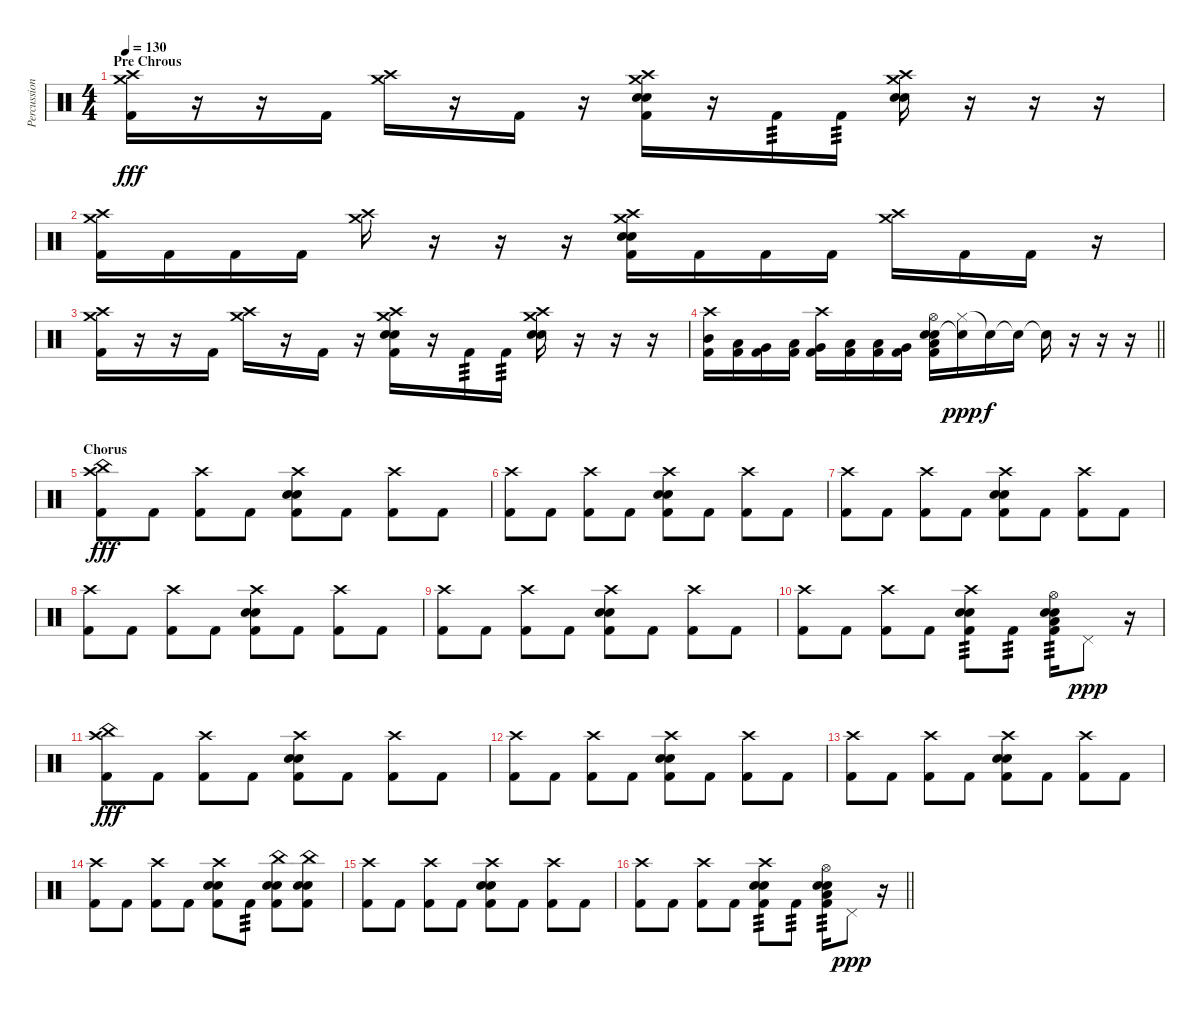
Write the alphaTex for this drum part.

\track ("Percussion" "Percussion") {instrument percussion}
\staff {score}
\articulation defaults
\ts (4 4)
\section ("" "Pre Chrous")
\tempo 130
\clef neutral
\ks c
("Crash medium (hit)" "Crash high (hit)" "Kick (hit) 2").16{dy fff} r.16 r.16 "Kick (hit) 2".16 ("Crash medium (hit)" "Crash high (hit)").16 r.16 "Kick (hit) 2".16 r.16 ("Crash medium (hit)" "Crash high (hit)" "Snare (hit) 2" "Electric Snare (hit)" "Kick (hit) 2").16 r.16 "Kick (hit) 2".16{tp 3} "Kick (hit) 2".16{tp 3} ("Crash medium (hit)" "Crash high (hit)" "Snare (hit) 2" "Electric Snare (hit)").16 r.16 r.16 r.16 |
("Crash high (hit)" "Crash medium (hit)" "Kick (hit) 2").16 "Kick (hit) 2".16 "Kick (hit) 2".16 "Kick (hit) 2".16 ("Crash high (hit)" "Crash medium (hit)").16 r.16 r.16 r.16 ("Crash high (hit)" "Crash medium (hit)" "Electric Snare (hit)" "Snare (hit) 2" "Kick (hit) 2").16 "Kick (hit) 2".16 "Kick (hit) 2".16 "Kick (hit) 2".16 ("Crash high (hit)" "Crash medium (hit)").16 "Kick (hit) 2".16 "Kick (hit) 2".16 r.16 |
("Crash medium (hit)" "Crash high (hit)" "Kick (hit) 2").16 r.16 r.16 "Kick (hit) 2".16 ("Crash medium (hit)" "Crash high (hit)").16 r.16 "Kick (hit) 2".16 r.16 ("Crash medium (hit)" "Crash high (hit)" "Snare (hit) 2" "Electric Snare (hit)" "Kick (hit) 2").16 r.16 "Kick (hit) 2".16{tp 3} "Kick (hit) 2".16{tp 3} ("Crash medium (hit)" "Crash high (hit)" "Snare (hit) 2" "Electric Snare (hit)").16 r.16 r.16 r.16 |
\barLineRight lightlight
("Crash high (hit)" "Mid Tom (hit)" "Kick (hit) 2").16 ("Low Tom (hit)" "Kick (hit) 2").16 ("Very Low Tom (hit)" "Kick (hit) 2").16 ("Low Tom (hit)" "Kick (hit) 2").16 ("Crash high (hit)" "Very Low Tom (hit)" "Kick (hit) 2").16 ("Low Floor Tom (hit)" "Kick (hit) 2").16 ("Low Tom (hit)" "Kick (hit) 2").16 ("Very Low Tom (hit)" "Kick (hit) 2").16 ("Hi-Hat (open)" "Electric Snare (hit)" "Snare (hit) 2" "Low Floor Tom (hit)" "Kick (hit) 2").16 ("Hi-Hat (closed)" "Snare (hit)"{t}).16{dy ppp} "Snare (hit)"{t}.16{dy f} "Snare (hit)"{t}.16 "Snare (hit)"{t}.16 r.16 r.16 r.16 |
\section ("" "Chorus")
("China (hit)" "Crash high (hit)" "Kick (hit) 2").8{dy fff} "Kick (hit) 2".8 ("Crash high (hit)" "Kick (hit) 2").8 "Kick (hit) 2".8 ("Crash high (hit)" "Snare (hit) 2" "Snare (hit) 2" "Kick (hit) 2").8 "Kick (hit) 2".8 ("Crash high (hit)" "Kick (hit) 2").8 "Kick (hit) 2".8 |
("Crash high (hit)" "Kick (hit) 2").8 "Kick (hit) 2".8 ("Crash high (hit)" "Kick (hit) 2").8 "Kick (hit) 2".8 ("Crash high (hit)" "Snare (hit) 2" "Snare (hit) 2" "Kick (hit) 2").8 "Kick (hit) 2".8 ("Crash high (hit)" "Kick (hit) 2").8 "Kick (hit) 2".8 |
("Crash high (hit)" "Kick (hit) 2").8 "Kick (hit) 2".8 ("Crash high (hit)" "Kick (hit) 2").8 "Kick (hit) 2".8 ("Crash high (hit)" "Snare (hit) 2" "Snare (hit) 2" "Kick (hit) 2").8 "Kick (hit) 2".8 ("Crash high (hit)" "Kick (hit) 2").8 "Kick (hit) 2".8 |
("Crash high (hit)" "Kick (hit) 2").8 "Kick (hit) 2".8 ("Crash high (hit)" "Kick (hit) 2").8 "Kick (hit) 2".8 ("Crash high (hit)" "Snare (hit) 2" "Snare (hit) 2" "Kick (hit) 2").8 "Kick (hit) 2".8 ("Crash high (hit)" "Kick (hit) 2").8 "Kick (hit) 2".8 |
("Crash high (hit)" "Kick (hit) 2").8 "Kick (hit) 2".8 ("Crash high (hit)" "Kick (hit) 2").8 "Kick (hit) 2".8 ("Crash high (hit)" "Snare (hit) 2" "Snare (hit) 2" "Kick (hit) 2").8 "Kick (hit) 2".8 ("Crash high (hit)" "Kick (hit) 2").8 "Kick (hit) 2".8 |
("Crash high (hit)" "Kick (hit) 2").8 "Kick (hit) 2".8 ("Crash high (hit)" "Kick (hit) 2").8 "Kick (hit) 2".8 ("Crash high (hit)" "Snare (hit) 2" "Snare (hit) 2" "Kick (hit) 2").8{tp 3} "Kick (hit) 2".8{tp 3} ("Hi-Hat (open)" "Snare (hit) 2" "Snare (hit) 2" "Low Floor Tom (hit)" "Kick (hit) 2").16{tp 3} "Pedal Hi-Hat (hit)".8{dy ppp} r.16 |
("China (hit)" "Crash high (hit)" "Kick (hit) 2").8{dy fff} "Kick (hit) 2".8 ("Crash high (hit)" "Kick (hit) 2").8 "Kick (hit) 2".8 ("Crash high (hit)" "Snare (hit) 2" "Snare (hit) 2" "Kick (hit) 2").8 "Kick (hit) 2".8 ("Crash high (hit)" "Kick (hit) 2").8 "Kick (hit) 2".8 |
("Crash high (hit)" "Kick (hit) 2").8 "Kick (hit) 2".8 ("Crash high (hit)" "Kick (hit) 2").8 "Kick (hit) 2".8 ("Crash high (hit)" "Snare (hit) 2" "Snare (hit) 2" "Kick (hit) 2").8 "Kick (hit) 2".8 ("Crash high (hit)" "Kick (hit) 2").8 "Kick (hit) 2".8 |
("Crash high (hit)" "Kick (hit) 2").8 "Kick (hit) 2".8 ("Crash high (hit)" "Kick (hit) 2").8 "Kick (hit) 2".8 ("Crash high (hit)" "Snare (hit) 2" "Snare (hit) 2" "Kick (hit) 2").8 "Kick (hit) 2".8 ("Crash high (hit)" "Kick (hit) 2").8 "Kick (hit) 2".8 |
("Crash high (hit)" "Kick (hit) 2").8 "Kick (hit) 2".8 ("Crash high (hit)" "Kick (hit) 2").8 "Kick (hit) 2".8 ("Crash high (hit)" "Snare (hit) 2" "Snare (hit) 2" "Kick (hit) 2").8 "Kick (hit) 2".8{tp 3} ("China (hit)" "Snare (hit) 2" "Snare (hit) 2" "Kick (hit) 2").8 ("China (hit)" "Snare (hit) 2" "Snare (hit) 2" "Kick (hit) 2").8 |
("Crash high (hit)" "Kick (hit) 2").8 "Kick (hit) 2".8 ("Crash high (hit)" "Kick (hit) 2").8 "Kick (hit) 2".8 ("Crash high (hit)" "Snare (hit) 2" "Snare (hit) 2" "Kick (hit) 2").8 "Kick (hit) 2".8 ("Crash high (hit)" "Kick (hit) 2").8 "Kick (hit) 2".8 |
\barLineRight lightlight
("Crash high (hit)" "Kick (hit) 2").8 "Kick (hit) 2".8 ("Crash high (hit)" "Kick (hit) 2").8 "Kick (hit) 2".8 ("Crash high (hit)" "Snare (hit) 2" "Snare (hit) 2" "Kick (hit) 2").8{tp 3} "Kick (hit) 2".8{tp 3} ("Hi-Hat (open)" "Snare (hit) 2" "Snare (hit) 2" "Low Floor Tom (hit)" "Kick (hit) 2").16{tp 3} "Pedal Hi-Hat (hit)".8{dy ppp} r.16
